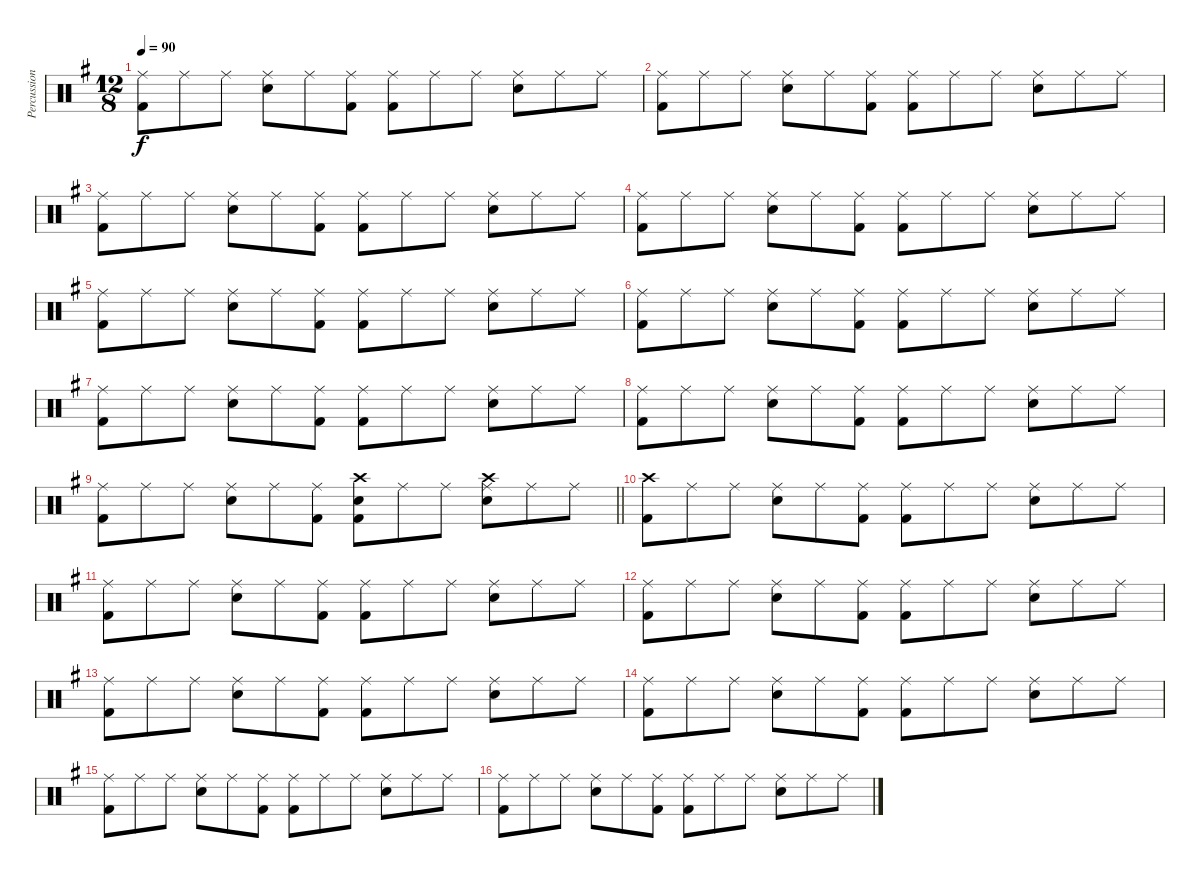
\track ("Percussion" "Percussion") {instrument percussion}
\staff {score}
\articulation defaults
\ts (12 8)
\tempo 90
\clef neutral
\ks g
("Ride (middle)" "Kick (hit) 2").8{dy f} "Ride (middle)".8 "Ride (middle)".8 ("Ride (middle)" "Snare (hit) 2").8 "Ride (middle)".8 ("Ride (middle)" "Kick (hit) 2").8 ("Ride (middle)" "Kick (hit) 2").8 "Ride (middle)".8 "Ride (middle)".8 ("Ride (middle)" "Snare (hit) 2").8 "Ride (middle)".8 "Ride (middle)".8 |
("Ride (middle)" "Kick (hit) 2").8 "Ride (middle)".8 "Ride (middle)".8 ("Ride (middle)" "Snare (hit) 2").8 "Ride (middle)".8 ("Ride (middle)" "Kick (hit) 2").8 ("Ride (middle)" "Kick (hit) 2").8 "Ride (middle)".8 "Ride (middle)".8 ("Ride (middle)" "Snare (hit) 2").8 "Ride (middle)".8 "Ride (middle)".8 |
("Ride (middle)" "Kick (hit) 2").8 "Ride (middle)".8 "Ride (middle)".8 ("Ride (middle)" "Snare (hit) 2").8 "Ride (middle)".8 ("Ride (middle)" "Kick (hit) 2").8 ("Ride (middle)" "Kick (hit) 2").8 "Ride (middle)".8 "Ride (middle)".8 ("Ride (middle)" "Snare (hit) 2").8 "Ride (middle)".8 "Ride (middle)".8 |
("Ride (middle)" "Kick (hit) 2").8 "Ride (middle)".8 "Ride (middle)".8 ("Ride (middle)" "Snare (hit) 2").8 "Ride (middle)".8 ("Ride (middle)" "Kick (hit) 2").8 ("Ride (middle)" "Kick (hit) 2").8 "Ride (middle)".8 "Ride (middle)".8 ("Ride (middle)" "Snare (hit) 2").8 "Ride (middle)".8 "Ride (middle)".8 |
("Ride (middle)" "Kick (hit) 2").8 "Ride (middle)".8 "Ride (middle)".8 ("Ride (middle)" "Snare (hit) 2").8 "Ride (middle)".8 ("Ride (middle)" "Kick (hit) 2").8 ("Ride (middle)" "Kick (hit) 2").8 "Ride (middle)".8 "Ride (middle)".8 ("Ride (middle)" "Snare (hit) 2").8 "Ride (middle)".8 "Ride (middle)".8 |
("Ride (middle)" "Kick (hit) 2").8 "Ride (middle)".8 "Ride (middle)".8 ("Ride (middle)" "Snare (hit) 2").8 "Ride (middle)".8 ("Ride (middle)" "Kick (hit) 2").8 ("Ride (middle)" "Kick (hit) 2").8 "Ride (middle)".8 "Ride (middle)".8 ("Ride (middle)" "Snare (hit) 2").8 "Ride (middle)".8 "Ride (middle)".8 |
("Ride (middle)" "Kick (hit) 2").8 "Ride (middle)".8 "Ride (middle)".8 ("Ride (middle)" "Snare (hit) 2").8 "Ride (middle)".8 ("Ride (middle)" "Kick (hit) 2").8 ("Ride (middle)" "Kick (hit) 2").8 "Ride (middle)".8 "Ride (middle)".8 ("Ride (middle)" "Snare (hit) 2").8 "Ride (middle)".8 "Ride (middle)".8 |
("Ride (middle)" "Kick (hit) 2").8 "Ride (middle)".8 "Ride (middle)".8 ("Ride (middle)" "Snare (hit) 2").8 "Ride (middle)".8 ("Ride (middle)" "Kick (hit) 2").8 ("Ride (middle)" "Kick (hit) 2").8 "Ride (middle)".8 "Ride (middle)".8 ("Ride (middle)" "Snare (hit) 2").8 "Ride (middle)".8 "Ride (middle)".8 |
\barLineRight lightlight
("Ride (middle)" "Kick (hit) 2").8 "Ride (middle)".8 "Ride (middle)".8 ("Ride (middle)" "Snare (hit) 2").8 "Ride (middle)".8 ("Ride (middle)" "Kick (hit) 2").8 ("Crash high (hit)" "Snare (hit) 2" "Kick (hit) 2").8 "Ride (middle)".8 "Ride (middle)".8 ("Ride (middle)" "Crash high (hit)" "Snare (hit) 2").8 "Ride (middle)".8 "Ride (middle)".8 |
("Crash high (hit)" "Kick (hit) 2").8 "Ride (middle)".8 "Ride (middle)".8 ("Ride (middle)" "Snare (hit) 2").8 "Ride (middle)".8 ("Ride (middle)" "Kick (hit) 2").8 ("Ride (middle)" "Kick (hit) 2").8 "Ride (middle)".8 "Ride (middle)".8 ("Ride (middle)" "Snare (hit) 2").8 "Ride (middle)".8 "Ride (middle)".8 |
("Ride (middle)" "Kick (hit) 2").8 "Ride (middle)".8 "Ride (middle)".8 ("Ride (middle)" "Snare (hit) 2").8 "Ride (middle)".8 ("Ride (middle)" "Kick (hit) 2").8 ("Ride (middle)" "Kick (hit) 2").8 "Ride (middle)".8 "Ride (middle)".8 ("Ride (middle)" "Snare (hit) 2").8 "Ride (middle)".8 "Ride (middle)".8 |
("Ride (middle)" "Kick (hit) 2").8 "Ride (middle)".8 "Ride (middle)".8 ("Ride (middle)" "Snare (hit) 2").8 "Ride (middle)".8 ("Ride (middle)" "Kick (hit) 2").8 ("Ride (middle)" "Kick (hit) 2").8 "Ride (middle)".8 "Ride (middle)".8 ("Ride (middle)" "Snare (hit) 2").8 "Ride (middle)".8 "Ride (middle)".8 |
("Ride (middle)" "Kick (hit) 2").8 "Ride (middle)".8 "Ride (middle)".8 ("Ride (middle)" "Snare (hit) 2").8 "Ride (middle)".8 ("Ride (middle)" "Kick (hit) 2").8 ("Ride (middle)" "Kick (hit) 2").8 "Ride (middle)".8 "Ride (middle)".8 ("Ride (middle)" "Snare (hit) 2").8 "Ride (middle)".8 "Ride (middle)".8 |
("Ride (middle)" "Kick (hit) 2").8 "Ride (middle)".8 "Ride (middle)".8 ("Ride (middle)" "Snare (hit) 2").8 "Ride (middle)".8 ("Ride (middle)" "Kick (hit) 2").8 ("Ride (middle)" "Kick (hit) 2").8 "Ride (middle)".8 "Ride (middle)".8 ("Ride (middle)" "Snare (hit) 2").8 "Ride (middle)".8 "Ride (middle)".8 |
("Ride (middle)" "Kick (hit) 2").8 "Ride (middle)".8 "Ride (middle)".8 ("Ride (middle)" "Snare (hit) 2").8 "Ride (middle)".8 ("Ride (middle)" "Kick (hit) 2").8 ("Ride (middle)" "Kick (hit) 2").8 "Ride (middle)".8 "Ride (middle)".8 ("Ride (middle)" "Snare (hit) 2").8 "Ride (middle)".8 "Ride (middle)".8 |
("Ride (middle)" "Kick (hit) 2").8 "Ride (middle)".8 "Ride (middle)".8 ("Ride (middle)" "Snare (hit) 2").8 "Ride (middle)".8 ("Ride (middle)" "Kick (hit) 2").8 ("Ride (middle)" "Kick (hit) 2").8 "Ride (middle)".8 "Ride (middle)".8 ("Ride (middle)" "Snare (hit) 2").8 "Ride (middle)".8 "Ride (middle)".8
